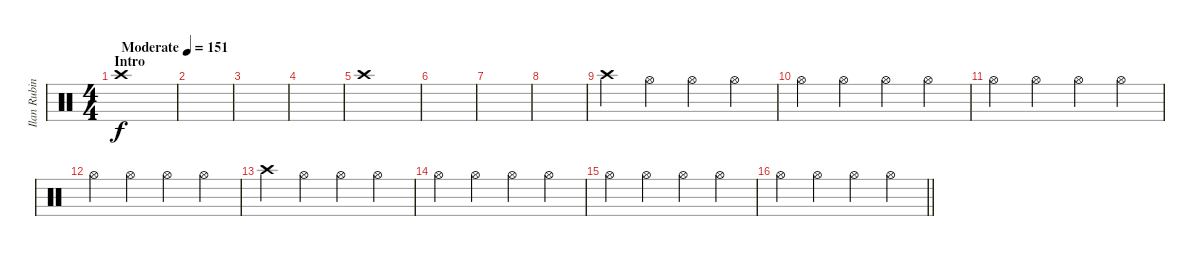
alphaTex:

\track ("Ilan Rubin [Drums]" "Ilan Rubin") {instrument percussion}
\staff {score}
\articulation defaults
\ts (4 4)
\section ("" "Intro")
\tempo (151 "Moderate")
\clef neutral
\ks c "Crash high (hit)".1{dy f}
|
|
|
|
"Crash high (hit)".1 |
|
|
|
"Crash high (hit)".4 "Hi-Hat (open)".4 "Hi-Hat (open)".4 "Hi-Hat (open)".4 |
"Hi-Hat (open)".4 "Hi-Hat (open)".4 "Hi-Hat (open)".4 "Hi-Hat (open)".4 |
"Hi-Hat (open)".4 "Hi-Hat (open)".4 "Hi-Hat (open)".4 "Hi-Hat (open)".4 |
"Hi-Hat (open)".4 "Hi-Hat (open)".4 "Hi-Hat (open)".4 "Hi-Hat (open)".4 |
"Crash high (hit)".4 "Hi-Hat (open)".4 "Hi-Hat (open)".4 "Hi-Hat (open)".4 |
"Hi-Hat (open)".4 "Hi-Hat (open)".4 "Hi-Hat (open)".4 "Hi-Hat (open)".4 |
"Hi-Hat (open)".4 "Hi-Hat (open)".4 "Hi-Hat (open)".4 "Hi-Hat (open)".4 |
\barLineRight lightlight "Hi-Hat (open)".4 "Hi-Hat (open)".4 "Hi-Hat (open)".4 "Hi-Hat (open)".4
